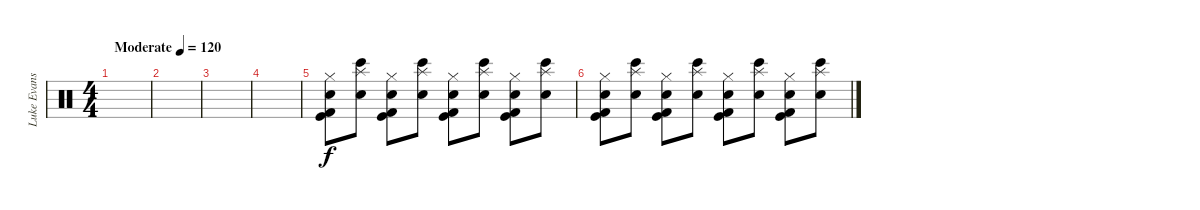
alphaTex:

\track ("Luke Evans (Drums)" "Luke Evans") {instrument percussion}
\staff {score}
\articulation defaults
\ts (4 4)
\tempo (120 "Moderate")
\clef neutral
\ks c
|
|
|
|
("Kick (hit)" "Kick (hit) 2" "Hi-Hat (closed)" "Snare (hit) 2").8 ("Splash (hit)" "Bongo High (hit)" "Snare (hit) 2").8 ("Kick (hit)" "Kick (hit) 2" "Hi-Hat (closed)" "Snare (hit) 2").8 ("Splash (hit)" "Bongo High (hit)" "Snare (hit) 2").8 ("Kick (hit)" "Kick (hit) 2" "Hi-Hat (closed)" "Snare (hit) 2").8 ("Splash (hit)" "Bongo High (hit)" "Snare (hit) 2").8 ("Kick (hit)" "Kick (hit) 2" "Hi-Hat (closed)" "Snare (hit) 2").8 ("Splash (hit)" "Bongo High (hit)" "Snare (hit) 2").8 |
("Kick (hit)" "Kick (hit) 2" "Hi-Hat (closed)" "Snare (hit) 2").8 ("Splash (hit)" "Bongo High (hit)" "Snare (hit) 2").8 ("Kick (hit)" "Kick (hit) 2" "Hi-Hat (closed)" "Snare (hit) 2").8 ("Splash (hit)" "Bongo High (hit)" "Snare (hit) 2").8 ("Kick (hit)" "Kick (hit) 2" "Hi-Hat (closed)" "Snare (hit) 2").8 ("Splash (hit)" "Bongo High (hit)" "Snare (hit) 2").8 ("Kick (hit)" "Kick (hit) 2" "Hi-Hat (closed)" "Snare (hit) 2").8 ("Splash (hit)" "Bongo High (hit)" "Snare (hit) 2").8
